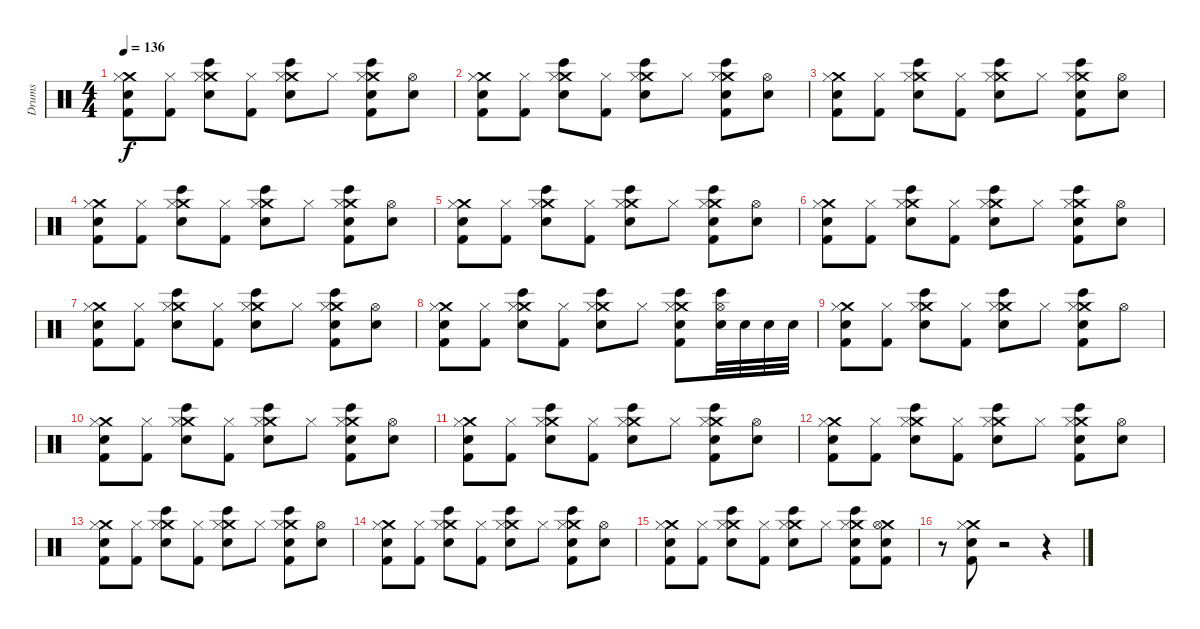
\track ("Drums" "Drums") {instrument percussion}
\staff {score}
\articulation defaults
\ts (4 4)
\tempo 136
\clef neutral
\ks c
("Crash medium (hit)" "Hi-Hat (closed)" "Electric Snare (hit)" "Kick (hit) 2").8{dy f} ("Hi-Hat (closed)" "Kick (hit) 2").8 ("Crash medium (hit)" "Hi-Hat (closed)" "Bongo High (hit)" "Electric Snare (hit)").8 ("Hi-Hat (closed)" "Kick (hit) 2").8 ("Crash medium (hit)" "Hi-Hat (closed)" "Bongo High (hit)" "Electric Snare (hit)").8 "Hi-Hat (closed)".8 ("Crash medium (hit)" "Hi-Hat (closed)" "Bongo High (hit)" "Electric Snare (hit)" "Kick (hit) 2").8 ("Hi-Hat (open)" "Electric Snare (hit)").8 |
("Crash medium (hit)" "Hi-Hat (closed)" "Electric Snare (hit)" "Kick (hit) 2").8 ("Hi-Hat (closed)" "Kick (hit) 2").8 ("Crash medium (hit)" "Hi-Hat (closed)" "Bongo High (hit)" "Electric Snare (hit)").8 ("Hi-Hat (closed)" "Kick (hit) 2").8 ("Crash medium (hit)" "Hi-Hat (closed)" "Bongo High (hit)" "Electric Snare (hit)").8 "Hi-Hat (closed)".8 ("Crash medium (hit)" "Hi-Hat (closed)" "Bongo High (hit)" "Electric Snare (hit)" "Kick (hit) 2").8 ("Hi-Hat (open)" "Electric Snare (hit)").8 |
("Crash medium (hit)" "Hi-Hat (closed)" "Electric Snare (hit)" "Kick (hit) 2").8 ("Hi-Hat (closed)" "Kick (hit) 2").8 ("Crash medium (hit)" "Hi-Hat (closed)" "Bongo High (hit)" "Electric Snare (hit)").8 ("Hi-Hat (closed)" "Kick (hit) 2").8 ("Crash medium (hit)" "Hi-Hat (closed)" "Bongo High (hit)" "Electric Snare (hit)").8 "Hi-Hat (closed)".8 ("Crash medium (hit)" "Hi-Hat (closed)" "Bongo High (hit)" "Electric Snare (hit)" "Kick (hit) 2").8 ("Hi-Hat (open)" "Electric Snare (hit)").8 |
("Crash medium (hit)" "Hi-Hat (closed)" "Electric Snare (hit)" "Kick (hit) 2").8 ("Hi-Hat (closed)" "Kick (hit) 2").8 ("Crash medium (hit)" "Hi-Hat (closed)" "Bongo High (hit)" "Electric Snare (hit)").8 ("Hi-Hat (closed)" "Kick (hit) 2").8 ("Crash medium (hit)" "Hi-Hat (closed)" "Bongo High (hit)" "Electric Snare (hit)").8 "Hi-Hat (closed)".8 ("Crash medium (hit)" "Hi-Hat (closed)" "Bongo High (hit)" "Electric Snare (hit)" "Kick (hit) 2").8 ("Hi-Hat (open)" "Electric Snare (hit)").8 |
("Crash medium (hit)" "Hi-Hat (closed)" "Electric Snare (hit)" "Kick (hit) 2").8 ("Hi-Hat (closed)" "Kick (hit) 2").8 ("Crash medium (hit)" "Hi-Hat (closed)" "Bongo High (hit)" "Electric Snare (hit)").8 ("Hi-Hat (closed)" "Kick (hit) 2").8 ("Crash medium (hit)" "Hi-Hat (closed)" "Bongo High (hit)" "Electric Snare (hit)").8 "Hi-Hat (closed)".8 ("Crash medium (hit)" "Hi-Hat (closed)" "Bongo High (hit)" "Electric Snare (hit)" "Kick (hit) 2").8 ("Hi-Hat (open)" "Electric Snare (hit)").8 |
("Crash medium (hit)" "Hi-Hat (closed)" "Electric Snare (hit)" "Kick (hit) 2").8 ("Hi-Hat (closed)" "Kick (hit) 2").8 ("Crash medium (hit)" "Hi-Hat (closed)" "Bongo High (hit)" "Electric Snare (hit)").8 ("Hi-Hat (closed)" "Kick (hit) 2").8 ("Crash medium (hit)" "Hi-Hat (closed)" "Bongo High (hit)" "Electric Snare (hit)").8 "Hi-Hat (closed)".8 ("Crash medium (hit)" "Hi-Hat (closed)" "Bongo High (hit)" "Electric Snare (hit)" "Kick (hit) 2").8 ("Hi-Hat (open)" "Electric Snare (hit)").8 |
("Crash medium (hit)" "Hi-Hat (closed)" "Electric Snare (hit)" "Kick (hit) 2").8 ("Hi-Hat (closed)" "Kick (hit) 2").8 ("Crash medium (hit)" "Hi-Hat (closed)" "Bongo High (hit)" "Electric Snare (hit)").8 ("Hi-Hat (closed)" "Kick (hit) 2").8 ("Crash medium (hit)" "Hi-Hat (closed)" "Bongo High (hit)" "Electric Snare (hit)").8 "Hi-Hat (closed)".8 ("Crash medium (hit)" "Hi-Hat (closed)" "Bongo High (hit)" "Electric Snare (hit)" "Kick (hit) 2").8 ("Hi-Hat (open)" "Electric Snare (hit)").8 |
("Crash medium (hit)" "Hi-Hat (closed)" "Electric Snare (hit)" "Kick (hit) 2").8 ("Hi-Hat (closed)" "Kick (hit) 2").8 ("Crash medium (hit)" "Hi-Hat (closed)" "Bongo High (hit)" "Electric Snare (hit)").8 ("Hi-Hat (closed)" "Kick (hit) 2").8 ("Crash medium (hit)" "Hi-Hat (closed)" "Bongo High (hit)" "Electric Snare (hit)").8 "Hi-Hat (closed)".8 ("Crash medium (hit)" "Hi-Hat (closed)" "Bongo High (hit)" "Electric Snare (hit)" "Kick (hit) 2").8 ("Hi-Hat (open)" "Bongo High (hit)" "Electric Snare (hit)").32 "Electric Snare (hit)".32 "Electric Snare (hit)".32 "Electric Snare (hit)".32 |
("Crash medium (hit)" "Hi-Hat (closed)" "Electric Snare (hit)" "Kick (hit) 2").8 ("Hi-Hat (closed)" "Kick (hit) 2").8 ("Crash medium (hit)" "Hi-Hat (closed)" "Bongo High (hit)" "Electric Snare (hit)").8 ("Hi-Hat (closed)" "Kick (hit) 2").8 ("Crash medium (hit)" "Hi-Hat (closed)" "Bongo High (hit)" "Electric Snare (hit)").8 "Hi-Hat (closed)".8 ("Crash medium (hit)" "Hi-Hat (closed)" "Bongo High (hit)" "Electric Snare (hit)" "Kick (hit) 2").8 "Hi-Hat (open)".8 |
("Crash medium (hit)" "Hi-Hat (closed)" "Electric Snare (hit)" "Kick (hit) 2").8 ("Hi-Hat (closed)" "Kick (hit) 2").8 ("Crash medium (hit)" "Hi-Hat (closed)" "Bongo High (hit)" "Electric Snare (hit)").8 ("Hi-Hat (closed)" "Kick (hit) 2").8 ("Crash medium (hit)" "Hi-Hat (closed)" "Bongo High (hit)" "Electric Snare (hit)").8 "Hi-Hat (closed)".8 ("Crash medium (hit)" "Hi-Hat (closed)" "Bongo High (hit)" "Electric Snare (hit)" "Kick (hit) 2").8 ("Hi-Hat (open)" "Electric Snare (hit)").8 |
("Crash medium (hit)" "Hi-Hat (closed)" "Electric Snare (hit)" "Kick (hit) 2").8 ("Hi-Hat (closed)" "Kick (hit) 2").8 ("Crash medium (hit)" "Hi-Hat (closed)" "Bongo High (hit)" "Electric Snare (hit)").8 ("Hi-Hat (closed)" "Kick (hit) 2").8 ("Crash medium (hit)" "Hi-Hat (closed)" "Bongo High (hit)" "Electric Snare (hit)").8 "Hi-Hat (closed)".8 ("Crash medium (hit)" "Hi-Hat (closed)" "Bongo High (hit)" "Electric Snare (hit)" "Kick (hit) 2").8 ("Hi-Hat (open)" "Electric Snare (hit)").8 |
("Crash medium (hit)" "Hi-Hat (closed)" "Electric Snare (hit)" "Kick (hit) 2").8 ("Hi-Hat (closed)" "Kick (hit) 2").8 ("Crash medium (hit)" "Hi-Hat (closed)" "Bongo High (hit)" "Electric Snare (hit)").8 ("Hi-Hat (closed)" "Kick (hit) 2").8 ("Crash medium (hit)" "Hi-Hat (closed)" "Bongo High (hit)" "Electric Snare (hit)").8 "Hi-Hat (closed)".8 ("Crash medium (hit)" "Hi-Hat (closed)" "Bongo High (hit)" "Electric Snare (hit)" "Kick (hit) 2").8 ("Hi-Hat (open)" "Electric Snare (hit)").8 |
("Crash medium (hit)" "Hi-Hat (closed)" "Electric Snare (hit)" "Kick (hit) 2").8 ("Hi-Hat (closed)" "Kick (hit) 2").8 ("Crash medium (hit)" "Hi-Hat (closed)" "Bongo High (hit)" "Electric Snare (hit)").8 ("Hi-Hat (closed)" "Kick (hit) 2").8 ("Crash medium (hit)" "Hi-Hat (closed)" "Bongo High (hit)" "Electric Snare (hit)").8 "Hi-Hat (closed)".8 ("Crash medium (hit)" "Hi-Hat (closed)" "Bongo High (hit)" "Electric Snare (hit)" "Kick (hit) 2").8 ("Hi-Hat (open)" "Electric Snare (hit)").8 |
("Crash medium (hit)" "Hi-Hat (closed)" "Electric Snare (hit)" "Kick (hit) 2").8 ("Hi-Hat (closed)" "Kick (hit) 2").8 ("Crash medium (hit)" "Hi-Hat (closed)" "Bongo High (hit)" "Electric Snare (hit)").8 ("Hi-Hat (closed)" "Kick (hit) 2").8 ("Crash medium (hit)" "Hi-Hat (closed)" "Bongo High (hit)" "Electric Snare (hit)").8 "Hi-Hat (closed)".8 ("Crash medium (hit)" "Hi-Hat (closed)" "Bongo High (hit)" "Electric Snare (hit)" "Kick (hit) 2").8 ("Hi-Hat (open)" "Electric Snare (hit)").8 |
("Crash medium (hit)" "Hi-Hat (closed)" "Electric Snare (hit)" "Kick (hit) 2").8 ("Hi-Hat (closed)" "Kick (hit) 2").8 ("Crash medium (hit)" "Hi-Hat (closed)" "Bongo High (hit)" "Electric Snare (hit)").8 ("Hi-Hat (closed)" "Kick (hit) 2").8 ("Crash medium (hit)" "Hi-Hat (closed)" "Bongo High (hit)" "Electric Snare (hit)").8 "Hi-Hat (closed)".8 ("Crash medium (hit)" "Hi-Hat (closed)" "Bongo High (hit)" "Electric Snare (hit)" "Kick (hit) 2").8 ("Crash medium (hit)" "Hi-Hat (open)" "Electric Snare (hit)" "Kick (hit) 2").8 |
r.8 ("Crash medium (hit)" "Hi-Hat (closed)" "Electric Snare (hit)" "Kick (hit) 2").8 r.2 r.4
